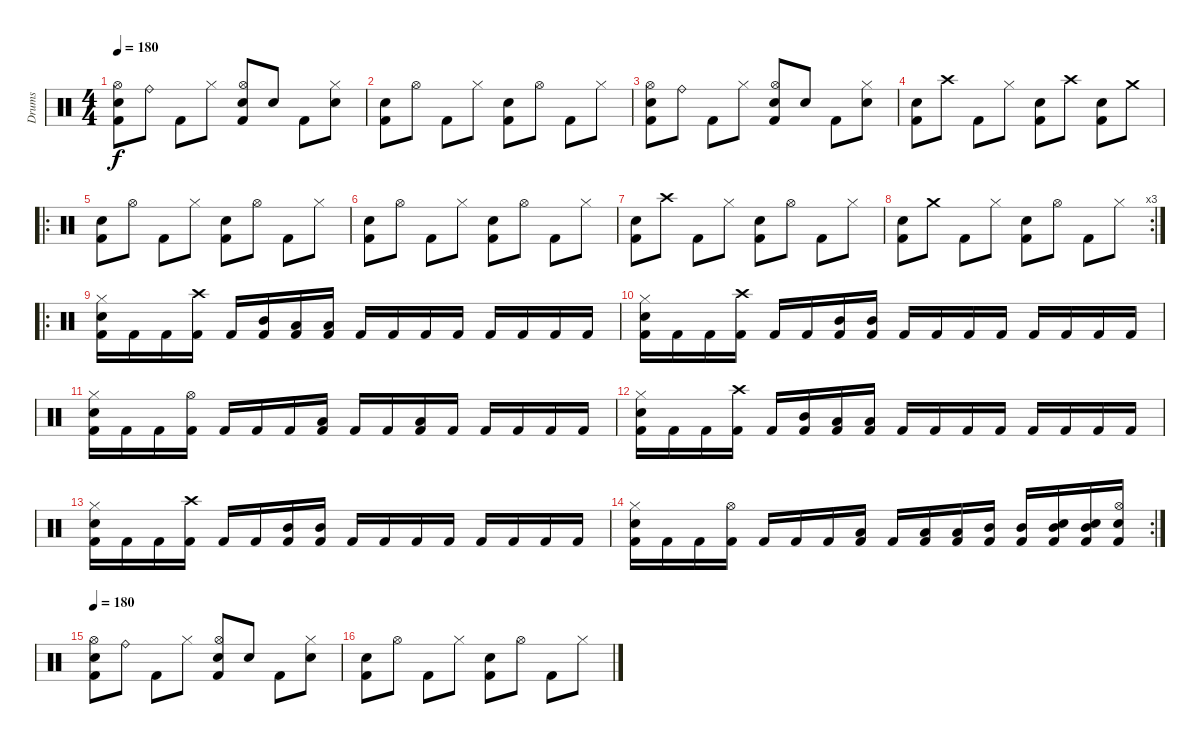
\track ("Drums" "Drums") {instrument percussion}
\staff {score}
\articulation defaults
\ts (4 4)
\tempo 180
\clef neutral
\ks c
("Electric Snare (hit)" "Hi-Hat (open)" "Kick (hit) 2").8{dy f} "Ride (bell)".8 "Kick (hit) 2".8 "Hi-Hat (closed)".8 ("Electric Snare (hit)" "Hi-Hat (open)" "Kick (hit) 2").8 "Electric Snare (hit)".8 "Kick (hit) 2".8 ("Electric Snare (hit)" "Hi-Hat (closed)").8 |
("Electric Snare (hit)" "Kick (hit) 2").8 "Hi-Hat (open)".8 "Kick (hit) 2".8 "Hi-Hat (closed)".8 ("Electric Snare (hit)" "Kick (hit) 2").8 "Hi-Hat (open)".8 "Kick (hit) 2".8 "Hi-Hat (closed)".8 |
("Electric Snare (hit)" "Hi-Hat (open)" "Kick (hit) 2").8 "Ride (bell)".8 "Kick (hit) 2".8 "Hi-Hat (closed)".8 ("Electric Snare (hit)" "Hi-Hat (open)" "Kick (hit) 2").8 "Electric Snare (hit)".8 "Kick (hit) 2".8 ("Electric Snare (hit)" "Hi-Hat (closed)").8 |
("Electric Snare (hit)" "Kick (hit) 2").8 "Crash high (hit)".8 "Kick (hit) 2".8 "Hi-Hat (closed)".8 ("Electric Snare (hit)" "Kick (hit) 2").8 "Crash high (hit)".8 ("Electric Snare (hit)" "Kick (hit) 2").8 "Crash medium (hit)".8 |
\ro
("Electric Snare (hit)" "Kick (hit) 2").8 "Hi-Hat (open)".8 "Kick (hit) 2".8 "Hi-Hat (closed)".8 ("Electric Snare (hit)" "Kick (hit) 2").8 "Hi-Hat (open)".8 "Kick (hit) 2".8 "Hi-Hat (closed)".8 |
("Electric Snare (hit)" "Kick (hit) 2").8 "Hi-Hat (open)".8 "Kick (hit) 2".8 "Hi-Hat (closed)".8 ("Electric Snare (hit)" "Kick (hit) 2").8 "Hi-Hat (open)".8 "Kick (hit) 2".8 "Hi-Hat (closed)".8 |
("Electric Snare (hit)" "Kick (hit) 2").8 "Crash high (hit)".8 "Kick (hit) 2".8 "Hi-Hat (closed)".8 ("Electric Snare (hit)" "Kick (hit) 2").8 "Hi-Hat (open)".8 "Kick (hit) 2".8 "Hi-Hat (closed)".8 |
\rc 3
("Electric Snare (hit)" "Kick (hit) 2").8 "Crash medium (hit)".8 "Kick (hit) 2".8 "Hi-Hat (closed)".8 ("Electric Snare (hit)" "Kick (hit) 2").8 "Hi-Hat (open)".8 "Kick (hit) 2".8 "Hi-Hat (closed)".8 |
\ro
("Electric Snare (hit)" "Hi-Hat (closed)" "Kick (hit) 2").16{volume 16} "Kick (hit) 2".16 "Kick (hit) 2".16 ("Crash high (hit)" "Kick (hit) 2").16 "Kick (hit) 2".16 ("Mid Tom (hit)" "Kick (hit) 2").16 ("Low Tom (hit)" "Kick (hit) 2").16 ("Low Floor Tom (hit)" "Kick (hit) 2").16 "Kick (hit) 2".16 "Kick (hit) 2".16 "Kick (hit) 2".16 "Kick (hit) 2".16 "Kick (hit) 2".16 "Kick (hit) 2".16 "Kick (hit) 2".16 "Kick (hit) 2".16 |
("Electric Snare (hit)" "Hi-Hat (closed)" "Kick (hit) 2").16 "Kick (hit) 2".16 "Kick (hit) 2".16 ("Crash high (hit)" "Kick (hit) 2").16 "Kick (hit) 2".16 "Kick (hit) 2".16 ("Mid Tom (hit)" "Kick (hit) 2").16 ("Mid Tom (hit)" "Kick (hit) 2").16 "Kick (hit) 2".16 "Kick (hit) 2".16 "Kick (hit) 2".16 "Kick (hit) 2".16 "Kick (hit) 2".16 "Kick (hit) 2".16 "Kick (hit) 2".16 "Kick (hit) 2".16 |
("Electric Snare (hit)" "Hi-Hat (closed)" "Kick (hit) 2").16 "Kick (hit) 2".16 "Kick (hit) 2".16 ("Hi-Hat (open)" "Kick (hit) 2").16 "Kick (hit) 2".16 "Kick (hit) 2".16 "Kick (hit) 2".16 ("Low Tom (hit)" "Kick (hit) 2").16 "Kick (hit) 2".16 "Kick (hit) 2".16 ("Low Tom (hit)" "Kick (hit) 2").16 "Kick (hit) 2".16 "Kick (hit) 2".16 "Kick (hit) 2".16 "Kick (hit) 2".16 "Kick (hit) 2".16 |
("Electric Snare (hit)" "Hi-Hat (closed)" "Kick (hit) 2").16{volume 16} "Kick (hit) 2".16 "Kick (hit) 2".16 ("Crash high (hit)" "Kick (hit) 2").16 "Kick (hit) 2".16 ("Mid Tom (hit)" "Kick (hit) 2").16 ("Low Tom (hit)" "Kick (hit) 2").16 ("Low Floor Tom (hit)" "Kick (hit) 2").16 "Kick (hit) 2".16 "Kick (hit) 2".16 "Kick (hit) 2".16 "Kick (hit) 2".16 "Kick (hit) 2".16 "Kick (hit) 2".16 "Kick (hit) 2".16 "Kick (hit) 2".16 |
("Electric Snare (hit)" "Hi-Hat (closed)" "Kick (hit) 2").16 "Kick (hit) 2".16 "Kick (hit) 2".16 ("Crash high (hit)" "Kick (hit) 2").16 "Kick (hit) 2".16 "Kick (hit) 2".16 ("Mid Tom (hit)" "Kick (hit) 2").16 ("Mid Tom (hit)" "Kick (hit) 2").16 "Kick (hit) 2".16 "Kick (hit) 2".16 "Kick (hit) 2".16 "Kick (hit) 2".16 "Kick (hit) 2".16 "Kick (hit) 2".16 "Kick (hit) 2".16 "Kick (hit) 2".16 |
\rc 2
("Electric Snare (hit)" "Hi-Hat (closed)" "Kick (hit) 2").16 "Kick (hit) 2".16 "Kick (hit) 2".16 ("Hi-Hat (open)" "Kick (hit) 2").16 "Kick (hit) 2".16 "Kick (hit) 2".16 "Kick (hit) 2".16 ("Low Tom (hit)" "Kick (hit) 2").16 "Kick (hit) 2".16 ("Low Tom (hit)" "Kick (hit) 2").16 ("Low Tom (hit)" "Kick (hit) 2").16 ("Mid Tom (hit)" "Kick (hit) 2").16 ("Mid Tom (hit)" "Kick (hit) 2").16 ("Mid Tom (hit)" "Electric Snare (hit)" "Kick (hit) 2").16 ("Mid Tom (hit)" "Electric Snare (hit)" "Kick (hit) 2").16 ("Hi-Hat (open)" "Electric Snare (hit)" "Kick (hit) 2").16 |
\tempo 180
("Electric Snare (hit)" "Hi-Hat (open)" "Kick (hit) 2").8 "Ride (bell)".8 "Kick (hit) 2".8 "Hi-Hat (closed)".8 ("Electric Snare (hit)" "Hi-Hat (open)" "Kick (hit) 2").8 "Electric Snare (hit)".8 "Kick (hit) 2".8 ("Electric Snare (hit)" "Hi-Hat (closed)").8 |
("Electric Snare (hit)" "Kick (hit) 2").8 "Hi-Hat (open)".8 "Kick (hit) 2".8 "Hi-Hat (closed)".8 ("Electric Snare (hit)" "Kick (hit) 2").8 "Hi-Hat (open)".8 "Kick (hit) 2".8 "Hi-Hat (closed)".8
